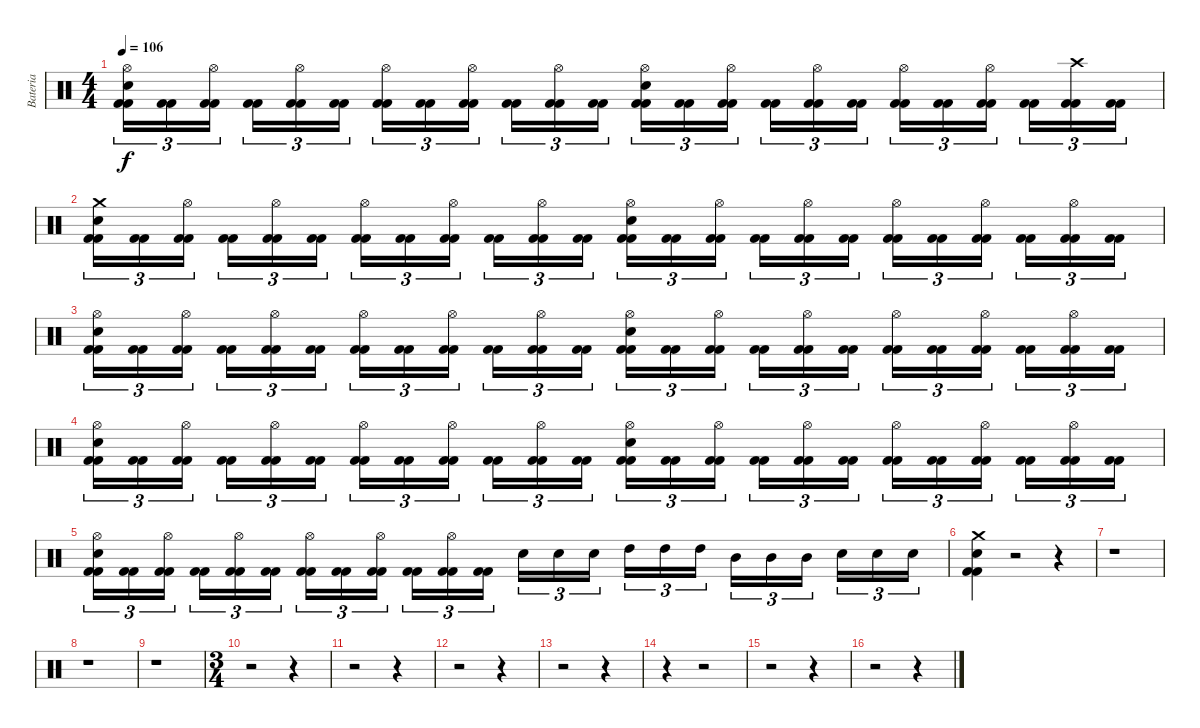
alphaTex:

\track ("Bateria" "Bateria") {instrument percussion}
\staff {score}
\articulation defaults
\ts (4 4)
\tempo 106
\clef neutral
\ks c
("Kick (hit) 2" "Kick (hit) 2" "Snare (hit) 2" "Hi-Hat (open)").16{tu (3 2) dy f} ("Kick (hit) 2" "Kick (hit) 2").16{tu (3 2)} ("Kick (hit) 2" "Kick (hit) 2" "Hi-Hat (open)").16{tu (3 2)} ("Kick (hit) 2" "Kick (hit) 2").16{tu (3 2)} ("Kick (hit) 2" "Kick (hit) 2" "Hi-Hat (open)").16{tu (3 2)} ("Kick (hit) 2" "Kick (hit) 2").16{tu (3 2)} ("Kick (hit) 2" "Kick (hit) 2" "Hi-Hat (open)").16{tu (3 2)} ("Kick (hit) 2" "Kick (hit) 2").16{tu (3 2)} ("Kick (hit) 2" "Kick (hit) 2" "Hi-Hat (open)").16{tu (3 2)} ("Kick (hit) 2" "Kick (hit) 2").16{tu (3 2)} ("Kick (hit) 2" "Kick (hit) 2" "Hi-Hat (open)").16{tu (3 2)} ("Kick (hit) 2" "Kick (hit) 2").16{tu (3 2)} ("Kick (hit) 2" "Kick (hit) 2" "Snare (hit) 2" "Hi-Hat (open)").16{tu (3 2)} ("Kick (hit) 2" "Kick (hit) 2").16{tu (3 2)} ("Kick (hit) 2" "Kick (hit) 2" "Hi-Hat (open)").16{tu (3 2)} ("Kick (hit) 2" "Kick (hit) 2").16{tu (3 2)} ("Kick (hit) 2" "Kick (hit) 2" "Hi-Hat (open)").16{tu (3 2)} ("Kick (hit) 2" "Kick (hit) 2").16{tu (3 2)} ("Kick (hit) 2" "Kick (hit) 2" "Hi-Hat (open)").16{tu (3 2)} ("Kick (hit) 2" "Kick (hit) 2").16{tu (3 2)} ("Kick (hit) 2" "Kick (hit) 2" "Hi-Hat (open)").16{tu (3 2)} ("Kick (hit) 2" "Kick (hit) 2").16{tu (3 2)} ("Kick (hit) 2" "Kick (hit) 2" "Crash high (hit)").16{tu (3 2)} ("Kick (hit) 2" "Kick (hit) 2").16{tu (3 2)} |
("Kick (hit) 2" "Kick (hit) 2" "Snare (hit) 2" "Crash medium (hit)").16{tu (3 2)} ("Kick (hit) 2" "Kick (hit) 2").16{tu (3 2)} ("Kick (hit) 2" "Kick (hit) 2" "Hi-Hat (open)").16{tu (3 2)} ("Kick (hit) 2" "Kick (hit) 2").16{tu (3 2)} ("Kick (hit) 2" "Kick (hit) 2" "Hi-Hat (open)").16{tu (3 2)} ("Kick (hit) 2" "Kick (hit) 2").16{tu (3 2)} ("Kick (hit) 2" "Kick (hit) 2" "Hi-Hat (open)").16{tu (3 2)} ("Kick (hit) 2" "Kick (hit) 2").16{tu (3 2)} ("Kick (hit) 2" "Kick (hit) 2" "Hi-Hat (open)").16{tu (3 2)} ("Kick (hit) 2" "Kick (hit) 2").16{tu (3 2)} ("Kick (hit) 2" "Kick (hit) 2" "Hi-Hat (open)").16{tu (3 2)} ("Kick (hit) 2" "Kick (hit) 2").16{tu (3 2)} ("Kick (hit) 2" "Kick (hit) 2" "Snare (hit) 2" "Hi-Hat (open)").16{tu (3 2)} ("Kick (hit) 2" "Kick (hit) 2").16{tu (3 2)} ("Kick (hit) 2" "Kick (hit) 2" "Hi-Hat (open)").16{tu (3 2)} ("Kick (hit) 2" "Kick (hit) 2").16{tu (3 2)} ("Kick (hit) 2" "Kick (hit) 2" "Hi-Hat (open)").16{tu (3 2)} ("Kick (hit) 2" "Kick (hit) 2").16{tu (3 2)} ("Kick (hit) 2" "Kick (hit) 2" "Hi-Hat (open)").16{tu (3 2)} ("Kick (hit) 2" "Kick (hit) 2").16{tu (3 2)} ("Kick (hit) 2" "Kick (hit) 2" "Hi-Hat (open)").16{tu (3 2)} ("Kick (hit) 2" "Kick (hit) 2").16{tu (3 2)} ("Kick (hit) 2" "Kick (hit) 2" "Hi-Hat (open)").16{tu (3 2)} ("Kick (hit) 2" "Kick (hit) 2").16{tu (3 2)} |
("Kick (hit) 2" "Kick (hit) 2" "Snare (hit) 2" "Hi-Hat (open)").16{tu (3 2)} ("Kick (hit) 2" "Kick (hit) 2").16{tu (3 2)} ("Kick (hit) 2" "Kick (hit) 2" "Hi-Hat (open)").16{tu (3 2)} ("Kick (hit) 2" "Kick (hit) 2").16{tu (3 2)} ("Kick (hit) 2" "Kick (hit) 2" "Hi-Hat (open)").16{tu (3 2)} ("Kick (hit) 2" "Kick (hit) 2").16{tu (3 2)} ("Kick (hit) 2" "Kick (hit) 2" "Hi-Hat (open)").16{tu (3 2)} ("Kick (hit) 2" "Kick (hit) 2").16{tu (3 2)} ("Kick (hit) 2" "Kick (hit) 2" "Hi-Hat (open)").16{tu (3 2)} ("Kick (hit) 2" "Kick (hit) 2").16{tu (3 2)} ("Kick (hit) 2" "Kick (hit) 2" "Hi-Hat (open)").16{tu (3 2)} ("Kick (hit) 2" "Kick (hit) 2").16{tu (3 2)} ("Kick (hit) 2" "Kick (hit) 2" "Snare (hit) 2" "Hi-Hat (open)").16{tu (3 2)} ("Kick (hit) 2" "Kick (hit) 2").16{tu (3 2)} ("Kick (hit) 2" "Kick (hit) 2" "Hi-Hat (open)").16{tu (3 2)} ("Kick (hit) 2" "Kick (hit) 2").16{tu (3 2)} ("Kick (hit) 2" "Kick (hit) 2" "Hi-Hat (open)").16{tu (3 2)} ("Kick (hit) 2" "Kick (hit) 2").16{tu (3 2)} ("Kick (hit) 2" "Kick (hit) 2" "Hi-Hat (open)").16{tu (3 2)} ("Kick (hit) 2" "Kick (hit) 2").16{tu (3 2)} ("Kick (hit) 2" "Kick (hit) 2" "Hi-Hat (open)").16{tu (3 2)} ("Kick (hit) 2" "Kick (hit) 2").16{tu (3 2)} ("Kick (hit) 2" "Kick (hit) 2" "Hi-Hat (open)").16{tu (3 2)} ("Kick (hit) 2" "Kick (hit) 2").16{tu (3 2)} |
("Kick (hit) 2" "Kick (hit) 2" "Snare (hit) 2" "Hi-Hat (open)").16{tu (3 2)} ("Kick (hit) 2" "Kick (hit) 2").16{tu (3 2)} ("Kick (hit) 2" "Kick (hit) 2" "Hi-Hat (open)").16{tu (3 2)} ("Kick (hit) 2" "Kick (hit) 2").16{tu (3 2)} ("Kick (hit) 2" "Kick (hit) 2" "Hi-Hat (open)").16{tu (3 2)} ("Kick (hit) 2" "Kick (hit) 2").16{tu (3 2)} ("Kick (hit) 2" "Kick (hit) 2" "Hi-Hat (open)").16{tu (3 2)} ("Kick (hit) 2" "Kick (hit) 2").16{tu (3 2)} ("Kick (hit) 2" "Kick (hit) 2" "Hi-Hat (open)").16{tu (3 2)} ("Kick (hit) 2" "Kick (hit) 2").16{tu (3 2)} ("Kick (hit) 2" "Kick (hit) 2" "Hi-Hat (open)").16{tu (3 2)} ("Kick (hit) 2" "Kick (hit) 2").16{tu (3 2)} ("Kick (hit) 2" "Kick (hit) 2" "Snare (hit) 2" "Hi-Hat (open)").16{tu (3 2)} ("Kick (hit) 2" "Kick (hit) 2").16{tu (3 2)} ("Kick (hit) 2" "Kick (hit) 2" "Hi-Hat (open)").16{tu (3 2)} ("Kick (hit) 2" "Kick (hit) 2").16{tu (3 2)} ("Kick (hit) 2" "Kick (hit) 2" "Hi-Hat (open)").16{tu (3 2)} ("Kick (hit) 2" "Kick (hit) 2").16{tu (3 2)} ("Kick (hit) 2" "Kick (hit) 2" "Hi-Hat (open)").16{tu (3 2)} ("Kick (hit) 2" "Kick (hit) 2").16{tu (3 2)} ("Kick (hit) 2" "Kick (hit) 2" "Hi-Hat (open)").16{tu (3 2)} ("Kick (hit) 2" "Kick (hit) 2").16{tu (3 2)} ("Kick (hit) 2" "Kick (hit) 2" "Hi-Hat (open)").16{tu (3 2)} ("Kick (hit) 2" "Kick (hit) 2").16{tu (3 2)} |
("Kick (hit) 2" "Kick (hit) 2" "Snare (hit) 2" "Hi-Hat (open)").16{tu (3 2)} ("Kick (hit) 2" "Kick (hit) 2").16{tu (3 2)} ("Kick (hit) 2" "Kick (hit) 2" "Hi-Hat (open)").16{tu (3 2)} ("Kick (hit) 2" "Kick (hit) 2").16{tu (3 2)} ("Kick (hit) 2" "Kick (hit) 2" "Hi-Hat (open)").16{tu (3 2)} ("Kick (hit) 2" "Kick (hit) 2").16{tu (3 2)} ("Kick (hit) 2" "Kick (hit) 2" "Hi-Hat (open)").16{tu (3 2)} ("Kick (hit) 2" "Kick (hit) 2").16{tu (3 2)} ("Kick (hit) 2" "Kick (hit) 2" "Hi-Hat (open)").16{tu (3 2)} ("Kick (hit) 2" "Kick (hit) 2").16{tu (3 2)} ("Kick (hit) 2" "Kick (hit) 2" "Hi-Hat (open)").16{tu (3 2)} ("Kick (hit) 2" "Kick (hit) 2").16{tu (3 2)} "Snare (hit) 2".16{tu (3 2)} "Snare (hit) 2".16{tu (3 2)} "Snare (hit) 2".16{tu (3 2)} "High Tom (hit)".16{tu (3 2)} "High Tom (hit)".16{tu (3 2)} "High Tom (hit)".16{tu (3 2)} "Mid Tom (hit)".16{tu (3 2)} "Mid Tom (hit)".16{tu (3 2)} "Mid Tom (hit)".16{tu (3 2)} "Snare (hit) 2".16{tu (3 2)} "Snare (hit) 2".16{tu (3 2)} "Snare (hit) 2".16{tu (3 2)} |
("Kick (hit) 2" "Kick (hit) 2" "Snare (hit) 2" "Crash medium (hit)").4 r.2 r.4 |
r.1 |
r.1 |
r.1 |
\ts (3 4)
r.2 r.4 |
r.2 r.4 |
r.2 r.4 |
r.2 r.4 |
r.4 r.2 |
r.2 r.4 |
r.2 r.4
